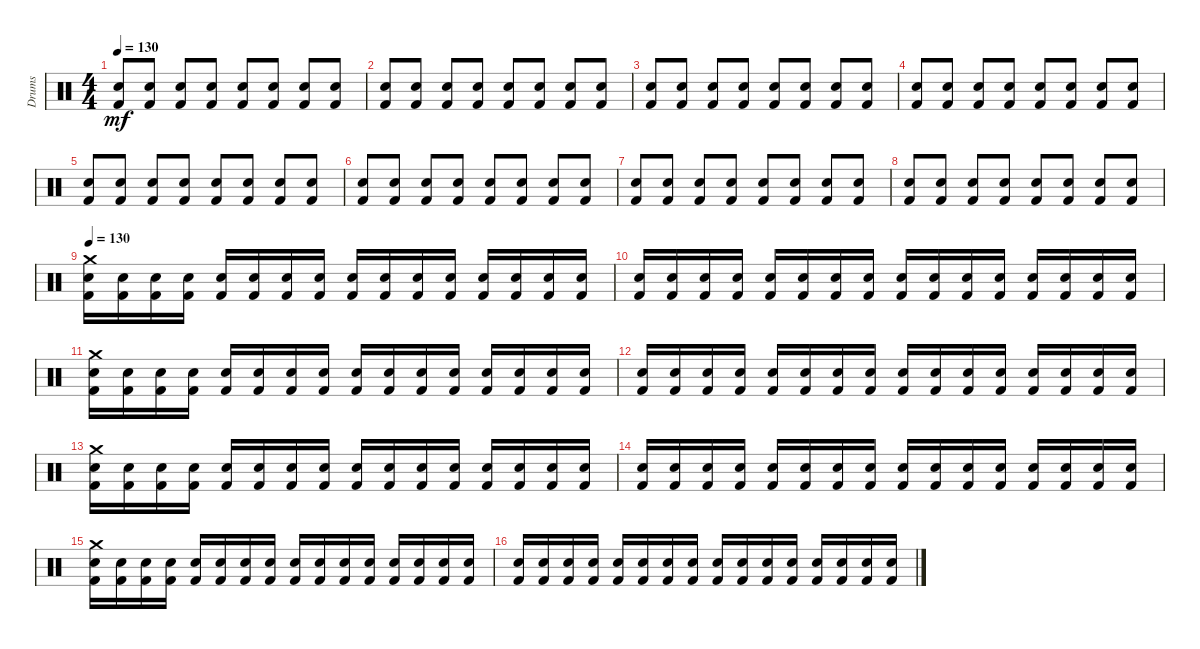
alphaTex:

\track ("Drums" "Drums") {instrument percussion}
\staff {score}
\articulation defaults
\ts (4 4)
\tempo 130
\clef neutral
\ks c
("Kick (hit) 2" "Snare (hit) 2").8{dy mf} ("Kick (hit) 2" "Snare (hit) 2").8 ("Kick (hit) 2" "Snare (hit) 2").8 ("Kick (hit) 2" "Snare (hit) 2").8 ("Kick (hit) 2" "Snare (hit) 2").8 ("Kick (hit) 2" "Snare (hit) 2").8 ("Kick (hit) 2" "Snare (hit) 2").8 ("Kick (hit) 2" "Snare (hit) 2").8 |
("Kick (hit) 2" "Snare (hit) 2").8 ("Kick (hit) 2" "Snare (hit) 2").8 ("Kick (hit) 2" "Snare (hit) 2").8 ("Kick (hit) 2" "Snare (hit) 2").8 ("Kick (hit) 2" "Snare (hit) 2").8 ("Kick (hit) 2" "Snare (hit) 2").8 ("Kick (hit) 2" "Snare (hit) 2").8 ("Kick (hit) 2" "Snare (hit) 2").8 |
("Kick (hit) 2" "Snare (hit) 2").8 ("Kick (hit) 2" "Snare (hit) 2").8 ("Kick (hit) 2" "Snare (hit) 2").8 ("Kick (hit) 2" "Snare (hit) 2").8 ("Kick (hit) 2" "Snare (hit) 2").8 ("Kick (hit) 2" "Snare (hit) 2").8 ("Kick (hit) 2" "Snare (hit) 2").8 ("Kick (hit) 2" "Snare (hit) 2").8 |
("Kick (hit) 2" "Snare (hit) 2").8 ("Kick (hit) 2" "Snare (hit) 2").8 ("Kick (hit) 2" "Snare (hit) 2").8 ("Kick (hit) 2" "Snare (hit) 2").8 ("Kick (hit) 2" "Snare (hit) 2").8 ("Kick (hit) 2" "Snare (hit) 2").8 ("Kick (hit) 2" "Snare (hit) 2").8 ("Kick (hit) 2" "Snare (hit) 2").8 |
("Kick (hit) 2" "Snare (hit) 2").8 ("Kick (hit) 2" "Snare (hit) 2").8 ("Kick (hit) 2" "Snare (hit) 2").8 ("Kick (hit) 2" "Snare (hit) 2").8 ("Kick (hit) 2" "Snare (hit) 2").8 ("Kick (hit) 2" "Snare (hit) 2").8 ("Kick (hit) 2" "Snare (hit) 2").8 ("Kick (hit) 2" "Snare (hit) 2").8 |
("Kick (hit) 2" "Snare (hit) 2").8 ("Kick (hit) 2" "Snare (hit) 2").8 ("Kick (hit) 2" "Snare (hit) 2").8 ("Kick (hit) 2" "Snare (hit) 2").8 ("Kick (hit) 2" "Snare (hit) 2").8 ("Kick (hit) 2" "Snare (hit) 2").8 ("Kick (hit) 2" "Snare (hit) 2").8 ("Kick (hit) 2" "Snare (hit) 2").8 |
("Kick (hit) 2" "Snare (hit) 2").8 ("Kick (hit) 2" "Snare (hit) 2").8 ("Kick (hit) 2" "Snare (hit) 2").8 ("Kick (hit) 2" "Snare (hit) 2").8 ("Kick (hit) 2" "Snare (hit) 2").8 ("Kick (hit) 2" "Snare (hit) 2").8 ("Kick (hit) 2" "Snare (hit) 2").8 ("Kick (hit) 2" "Snare (hit) 2").8 |
("Kick (hit) 2" "Snare (hit) 2").8 ("Kick (hit) 2" "Snare (hit) 2").8 ("Kick (hit) 2" "Snare (hit) 2").8 ("Kick (hit) 2" "Snare (hit) 2").8 ("Kick (hit) 2" "Snare (hit) 2").8 ("Kick (hit) 2" "Snare (hit) 2").8 ("Kick (hit) 2" "Snare (hit) 2").8 ("Kick (hit) 2" "Snare (hit) 2").8 |
\tempo 130
("Kick (hit) 2" "Snare (hit) 2" "Crash medium (hit)").16 ("Kick (hit) 2" "Snare (hit) 2").16 ("Kick (hit) 2" "Snare (hit) 2").16 ("Kick (hit) 2" "Snare (hit) 2").16 ("Kick (hit) 2" "Snare (hit) 2").16 ("Kick (hit) 2" "Snare (hit) 2").16 ("Kick (hit) 2" "Snare (hit) 2").16 ("Kick (hit) 2" "Snare (hit) 2").16 ("Kick (hit) 2" "Snare (hit) 2").16 ("Kick (hit) 2" "Snare (hit) 2").16 ("Kick (hit) 2" "Snare (hit) 2").16 ("Kick (hit) 2" "Snare (hit) 2").16 ("Kick (hit) 2" "Snare (hit) 2").16 ("Kick (hit) 2" "Snare (hit) 2").16 ("Kick (hit) 2" "Snare (hit) 2").16 ("Kick (hit) 2" "Snare (hit) 2").16 |
("Kick (hit) 2" "Snare (hit) 2").16 ("Kick (hit) 2" "Snare (hit) 2").16 ("Kick (hit) 2" "Snare (hit) 2").16 ("Kick (hit) 2" "Snare (hit) 2").16 ("Kick (hit) 2" "Snare (hit) 2").16 ("Kick (hit) 2" "Snare (hit) 2").16 ("Kick (hit) 2" "Snare (hit) 2").16 ("Kick (hit) 2" "Snare (hit) 2").16 ("Kick (hit) 2" "Snare (hit) 2").16 ("Kick (hit) 2" "Snare (hit) 2").16 ("Kick (hit) 2" "Snare (hit) 2").16 ("Kick (hit) 2" "Snare (hit) 2").16 ("Kick (hit) 2" "Snare (hit) 2").16 ("Kick (hit) 2" "Snare (hit) 2").16 ("Kick (hit) 2" "Snare (hit) 2").16 ("Kick (hit) 2" "Snare (hit) 2").16 |
("Kick (hit) 2" "Snare (hit) 2" "Crash medium (hit)").16 ("Kick (hit) 2" "Snare (hit) 2").16 ("Kick (hit) 2" "Snare (hit) 2").16 ("Kick (hit) 2" "Snare (hit) 2").16 ("Kick (hit) 2" "Snare (hit) 2").16 ("Kick (hit) 2" "Snare (hit) 2").16 ("Kick (hit) 2" "Snare (hit) 2").16 ("Kick (hit) 2" "Snare (hit) 2").16 ("Kick (hit) 2" "Snare (hit) 2").16 ("Kick (hit) 2" "Snare (hit) 2").16 ("Kick (hit) 2" "Snare (hit) 2").16 ("Kick (hit) 2" "Snare (hit) 2").16 ("Kick (hit) 2" "Snare (hit) 2").16 ("Kick (hit) 2" "Snare (hit) 2").16 ("Kick (hit) 2" "Snare (hit) 2").16 ("Kick (hit) 2" "Snare (hit) 2").16 |
("Kick (hit) 2" "Snare (hit) 2").16 ("Kick (hit) 2" "Snare (hit) 2").16 ("Kick (hit) 2" "Snare (hit) 2").16 ("Kick (hit) 2" "Snare (hit) 2").16 ("Kick (hit) 2" "Snare (hit) 2").16 ("Kick (hit) 2" "Snare (hit) 2").16 ("Kick (hit) 2" "Snare (hit) 2").16 ("Kick (hit) 2" "Snare (hit) 2").16 ("Kick (hit) 2" "Snare (hit) 2").16 ("Kick (hit) 2" "Snare (hit) 2").16 ("Kick (hit) 2" "Snare (hit) 2").16 ("Kick (hit) 2" "Snare (hit) 2").16 ("Kick (hit) 2" "Snare (hit) 2").16 ("Kick (hit) 2" "Snare (hit) 2").16 ("Kick (hit) 2" "Snare (hit) 2").16 ("Kick (hit) 2" "Snare (hit) 2").16 |
("Kick (hit) 2" "Snare (hit) 2" "Crash medium (hit)").16 ("Kick (hit) 2" "Snare (hit) 2").16 ("Kick (hit) 2" "Snare (hit) 2").16 ("Kick (hit) 2" "Snare (hit) 2").16 ("Kick (hit) 2" "Snare (hit) 2").16 ("Kick (hit) 2" "Snare (hit) 2").16 ("Kick (hit) 2" "Snare (hit) 2").16 ("Kick (hit) 2" "Snare (hit) 2").16 ("Kick (hit) 2" "Snare (hit) 2").16 ("Kick (hit) 2" "Snare (hit) 2").16 ("Kick (hit) 2" "Snare (hit) 2").16 ("Kick (hit) 2" "Snare (hit) 2").16 ("Kick (hit) 2" "Snare (hit) 2").16 ("Kick (hit) 2" "Snare (hit) 2").16 ("Kick (hit) 2" "Snare (hit) 2").16 ("Kick (hit) 2" "Snare (hit) 2").16 |
("Kick (hit) 2" "Snare (hit) 2").16 ("Kick (hit) 2" "Snare (hit) 2").16 ("Kick (hit) 2" "Snare (hit) 2").16 ("Kick (hit) 2" "Snare (hit) 2").16 ("Kick (hit) 2" "Snare (hit) 2").16 ("Kick (hit) 2" "Snare (hit) 2").16 ("Kick (hit) 2" "Snare (hit) 2").16 ("Kick (hit) 2" "Snare (hit) 2").16 ("Kick (hit) 2" "Snare (hit) 2").16 ("Kick (hit) 2" "Snare (hit) 2").16 ("Kick (hit) 2" "Snare (hit) 2").16 ("Kick (hit) 2" "Snare (hit) 2").16 ("Kick (hit) 2" "Snare (hit) 2").16 ("Kick (hit) 2" "Snare (hit) 2").16 ("Kick (hit) 2" "Snare (hit) 2").16 ("Kick (hit) 2" "Snare (hit) 2").16 |
("Kick (hit) 2" "Snare (hit) 2" "Crash medium (hit)").16 ("Kick (hit) 2" "Snare (hit) 2").16 ("Kick (hit) 2" "Snare (hit) 2").16 ("Kick (hit) 2" "Snare (hit) 2").16 ("Kick (hit) 2" "Snare (hit) 2").16 ("Kick (hit) 2" "Snare (hit) 2").16 ("Kick (hit) 2" "Snare (hit) 2").16 ("Kick (hit) 2" "Snare (hit) 2").16 ("Kick (hit) 2" "Snare (hit) 2").16 ("Kick (hit) 2" "Snare (hit) 2").16 ("Kick (hit) 2" "Snare (hit) 2").16 ("Kick (hit) 2" "Snare (hit) 2").16 ("Kick (hit) 2" "Snare (hit) 2").16 ("Kick (hit) 2" "Snare (hit) 2").16 ("Kick (hit) 2" "Snare (hit) 2").16 ("Kick (hit) 2" "Snare (hit) 2").16 |
("Kick (hit) 2" "Snare (hit) 2").16 ("Kick (hit) 2" "Snare (hit) 2").16 ("Kick (hit) 2" "Snare (hit) 2").16 ("Kick (hit) 2" "Snare (hit) 2").16 ("Kick (hit) 2" "Snare (hit) 2").16 ("Kick (hit) 2" "Snare (hit) 2").16 ("Kick (hit) 2" "Snare (hit) 2").16 ("Kick (hit) 2" "Snare (hit) 2").16 ("Kick (hit) 2" "Snare (hit) 2").16 ("Kick (hit) 2" "Snare (hit) 2").16 ("Kick (hit) 2" "Snare (hit) 2").16 ("Kick (hit) 2" "Snare (hit) 2").16 ("Kick (hit) 2" "Snare (hit) 2").16 ("Kick (hit) 2" "Snare (hit) 2").16 ("Kick (hit) 2" "Snare (hit) 2").16 ("Kick (hit) 2" "Snare (hit) 2").16
